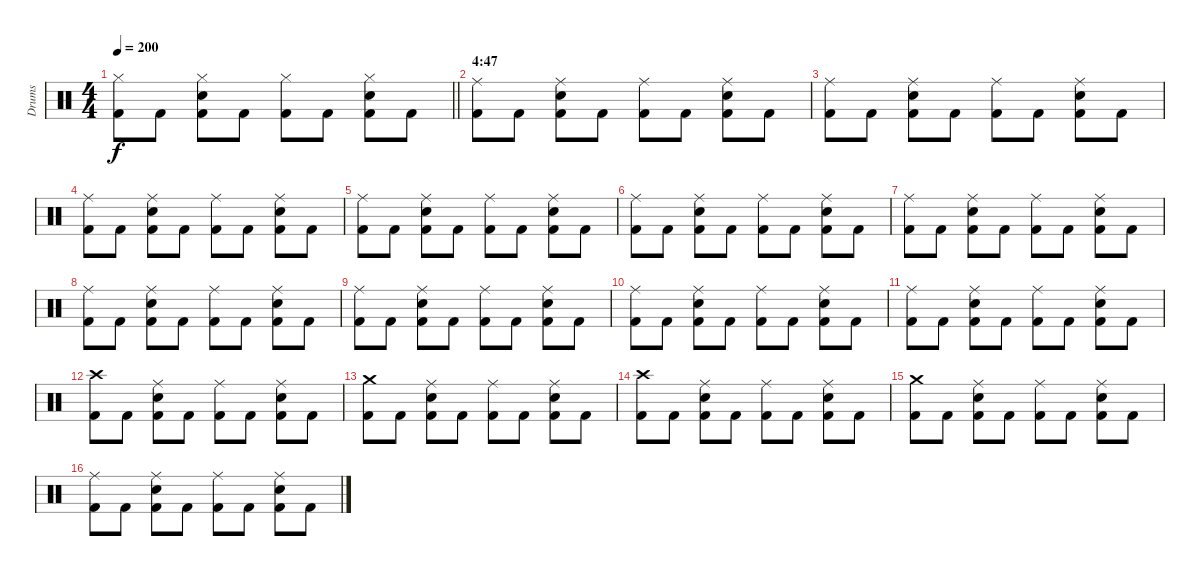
\track ("Drums" "Drums") {instrument percussion}
\staff {score}
\articulation defaults
\ts (4 4)
\tempo 200
\clef neutral
\barLineRight lightlight
\ks c
("Hi-Hat (closed)" "Kick (hit) 2").8{dy f} "Kick (hit) 2".8 ("Hi-Hat (closed)" "Snare (hit) 2" "Kick (hit) 2").8 "Kick (hit) 2".8 ("Hi-Hat (closed)" "Kick (hit) 2").8 "Kick (hit) 2".8 ("Hi-Hat (closed)" "Snare (hit) 2" "Kick (hit) 2").8 "Kick (hit) 2".8 |
\section ("" "4:47")
("Ride (middle)" "Kick (hit) 2").8 "Kick (hit) 2".8 ("Ride (middle)" "Snare (hit) 2" "Kick (hit) 2").8 "Kick (hit) 2".8 ("Ride (middle)" "Kick (hit) 2").8 "Kick (hit) 2".8 ("Ride (middle)" "Snare (hit) 2" "Kick (hit) 2").8 "Kick (hit) 2".8 |
("Ride (middle)" "Kick (hit) 2").8 "Kick (hit) 2".8 ("Ride (middle)" "Snare (hit) 2" "Kick (hit) 2").8 "Kick (hit) 2".8 ("Ride (middle)" "Kick (hit) 2").8 "Kick (hit) 2".8 ("Ride (middle)" "Snare (hit) 2" "Kick (hit) 2").8 "Kick (hit) 2".8 |
("Ride (middle)" "Kick (hit) 2").8 "Kick (hit) 2".8 ("Ride (middle)" "Snare (hit) 2" "Kick (hit) 2").8 "Kick (hit) 2".8 ("Ride (middle)" "Kick (hit) 2").8 "Kick (hit) 2".8 ("Ride (middle)" "Snare (hit) 2" "Kick (hit) 2").8 "Kick (hit) 2".8 |
("Ride (middle)" "Kick (hit) 2").8 "Kick (hit) 2".8 ("Ride (middle)" "Snare (hit) 2" "Kick (hit) 2").8 "Kick (hit) 2".8 ("Ride (middle)" "Kick (hit) 2").8 "Kick (hit) 2".8 ("Ride (middle)" "Snare (hit) 2" "Kick (hit) 2").8 "Kick (hit) 2".8 |
("Ride (middle)" "Kick (hit) 2").8 "Kick (hit) 2".8 ("Ride (middle)" "Snare (hit) 2" "Kick (hit) 2").8 "Kick (hit) 2".8 ("Ride (middle)" "Kick (hit) 2").8 "Kick (hit) 2".8 ("Ride (middle)" "Snare (hit) 2" "Kick (hit) 2").8 "Kick (hit) 2".8 |
("Ride (middle)" "Kick (hit) 2").8 "Kick (hit) 2".8 ("Ride (middle)" "Snare (hit) 2" "Kick (hit) 2").8 "Kick (hit) 2".8 ("Ride (middle)" "Kick (hit) 2").8 "Kick (hit) 2".8 ("Ride (middle)" "Snare (hit) 2" "Kick (hit) 2").8 "Kick (hit) 2".8 |
("Ride (middle)" "Kick (hit) 2").8 "Kick (hit) 2".8 ("Ride (middle)" "Snare (hit) 2" "Kick (hit) 2").8 "Kick (hit) 2".8 ("Ride (middle)" "Kick (hit) 2").8 "Kick (hit) 2".8 ("Ride (middle)" "Snare (hit) 2" "Kick (hit) 2").8 "Kick (hit) 2".8 |
("Ride (middle)" "Kick (hit) 2").8 "Kick (hit) 2".8 ("Ride (middle)" "Snare (hit) 2" "Kick (hit) 2").8 "Kick (hit) 2".8 ("Ride (middle)" "Kick (hit) 2").8 "Kick (hit) 2".8 ("Ride (middle)" "Snare (hit) 2" "Kick (hit) 2").8 "Kick (hit) 2".8 |
("Ride (middle)" "Kick (hit) 2").8 "Kick (hit) 2".8 ("Ride (middle)" "Snare (hit) 2" "Kick (hit) 2").8 "Kick (hit) 2".8 ("Ride (middle)" "Kick (hit) 2").8 "Kick (hit) 2".8 ("Ride (middle)" "Snare (hit) 2" "Kick (hit) 2").8 "Kick (hit) 2".8 |
("Ride (middle)" "Kick (hit) 2").8 "Kick (hit) 2".8 ("Ride (middle)" "Snare (hit) 2" "Kick (hit) 2").8 "Kick (hit) 2".8 ("Ride (middle)" "Kick (hit) 2").8 "Kick (hit) 2".8 ("Ride (middle)" "Snare (hit) 2" "Kick (hit) 2").8 "Kick (hit) 2".8 |
("Crash high (hit)" "Kick (hit) 2").8 "Kick (hit) 2".8 ("Ride (middle)" "Snare (hit) 2" "Kick (hit) 2").8 "Kick (hit) 2".8 ("Ride (middle)" "Kick (hit) 2").8 "Kick (hit) 2".8 ("Ride (middle)" "Snare (hit) 2" "Kick (hit) 2").8 "Kick (hit) 2".8 |
("Crash medium (hit)" "Kick (hit) 2").8 "Kick (hit) 2".8 ("Ride (middle)" "Snare (hit) 2" "Kick (hit) 2").8 "Kick (hit) 2".8 ("Ride (middle)" "Kick (hit) 2").8 "Kick (hit) 2".8 ("Ride (middle)" "Snare (hit) 2" "Kick (hit) 2").8 "Kick (hit) 2".8 |
("Crash high (hit)" "Kick (hit) 2").8 "Kick (hit) 2".8 ("Ride (middle)" "Snare (hit) 2" "Kick (hit) 2").8 "Kick (hit) 2".8 ("Ride (middle)" "Kick (hit) 2").8 "Kick (hit) 2".8 ("Ride (middle)" "Snare (hit) 2" "Kick (hit) 2").8 "Kick (hit) 2".8 |
("Crash medium (hit)" "Kick (hit) 2").8 "Kick (hit) 2".8 ("Ride (middle)" "Snare (hit) 2" "Kick (hit) 2").8 "Kick (hit) 2".8 ("Ride (middle)" "Kick (hit) 2").8 "Kick (hit) 2".8 ("Ride (middle)" "Snare (hit) 2" "Kick (hit) 2").8 "Kick (hit) 2".8 |
("Ride (middle)" "Kick (hit) 2").8 "Kick (hit) 2".8 ("Ride (middle)" "Snare (hit) 2" "Kick (hit) 2").8 "Kick (hit) 2".8 ("Ride (middle)" "Kick (hit) 2").8 "Kick (hit) 2".8 ("Ride (middle)" "Snare (hit) 2" "Kick (hit) 2").8 "Kick (hit) 2".8
